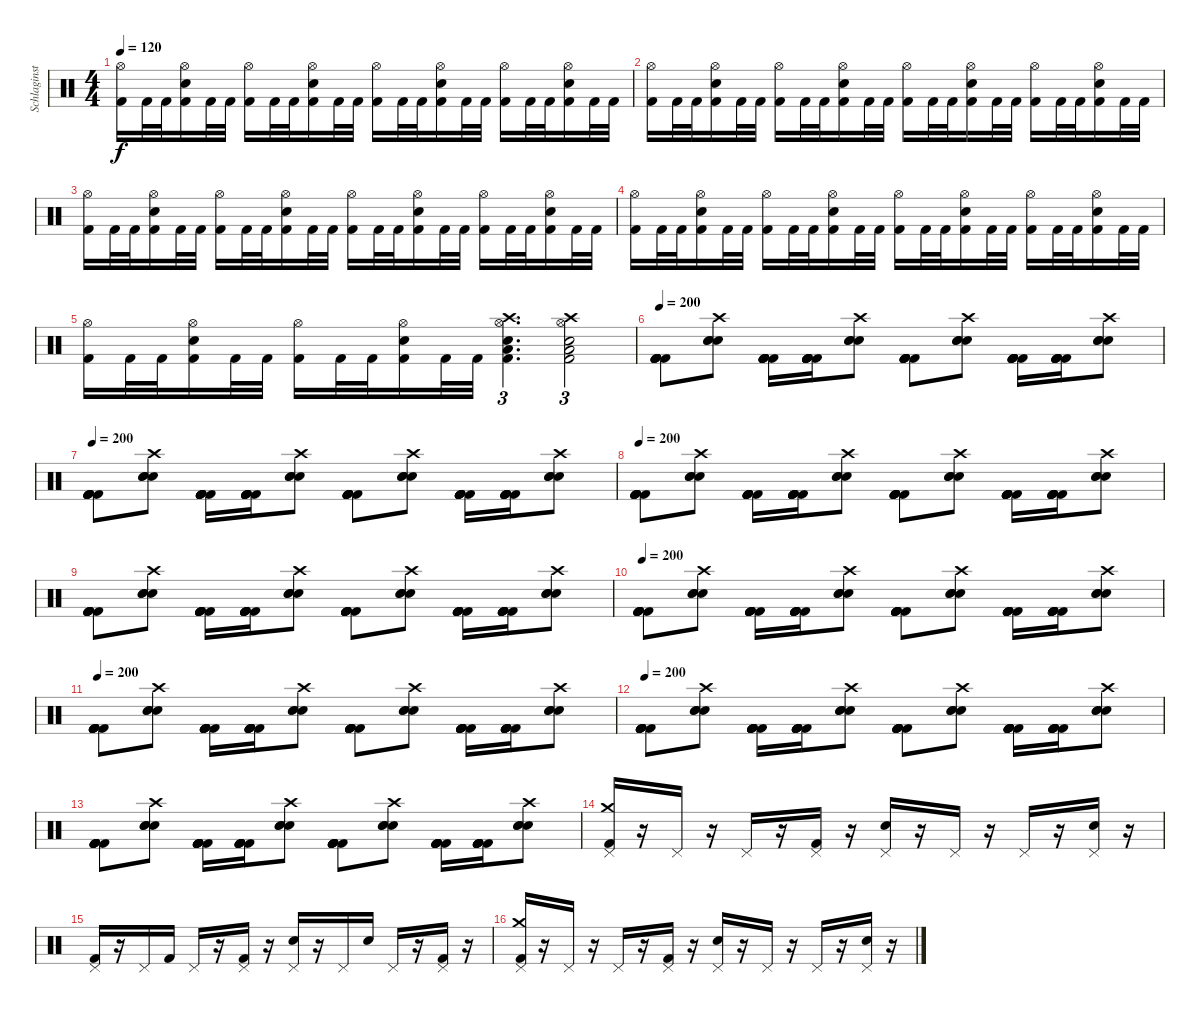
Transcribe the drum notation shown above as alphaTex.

\track ("Schlaginstrumente - Auswahl" "Schlaginst") {instrument percussion}
\staff {score}
\articulation defaults
\ts (4 4)
\tempo 120
\clef neutral
\ks c
("Hi-Hat (open)" "Kick (hit) 2").16{dy f} "Kick (hit) 2".32 "Kick (hit) 2".32 ("Hi-Hat (open)" "Electric Snare (hit)" "Kick (hit) 2").16 "Kick (hit) 2".32 "Kick (hit) 2".32 ("Hi-Hat (open)" "Kick (hit) 2").16 "Kick (hit) 2".32 "Kick (hit) 2".32 ("Hi-Hat (open)" "Electric Snare (hit)" "Kick (hit) 2").16 "Kick (hit) 2".32 "Kick (hit) 2".32 ("Hi-Hat (open)" "Kick (hit) 2").16 "Kick (hit) 2".32 "Kick (hit) 2".32 ("Hi-Hat (open)" "Electric Snare (hit)" "Kick (hit) 2").16 "Kick (hit) 2".32 "Kick (hit) 2".32 ("Hi-Hat (open)" "Kick (hit) 2").16 "Kick (hit) 2".32 "Kick (hit) 2".32 ("Hi-Hat (open)" "Electric Snare (hit)" "Kick (hit) 2").16 "Kick (hit) 2".32 "Kick (hit) 2".32 |
("Hi-Hat (open)" "Kick (hit) 2").16 "Kick (hit) 2".32 "Kick (hit) 2".32 ("Hi-Hat (open)" "Electric Snare (hit)" "Kick (hit) 2").16 "Kick (hit) 2".32 "Kick (hit) 2".32 ("Hi-Hat (open)" "Kick (hit) 2").16 "Kick (hit) 2".32 "Kick (hit) 2".32 ("Hi-Hat (open)" "Electric Snare (hit)" "Kick (hit) 2").16 "Kick (hit) 2".32 "Kick (hit) 2".32 ("Hi-Hat (open)" "Kick (hit) 2").16 "Kick (hit) 2".32 "Kick (hit) 2".32 ("Hi-Hat (open)" "Electric Snare (hit)" "Kick (hit) 2").16 "Kick (hit) 2".32 "Kick (hit) 2".32 ("Hi-Hat (open)" "Kick (hit) 2").16 "Kick (hit) 2".32 "Kick (hit) 2".32 ("Hi-Hat (open)" "Electric Snare (hit)" "Kick (hit) 2").16 "Kick (hit) 2".32 "Kick (hit) 2".32 |
("Hi-Hat (open)" "Kick (hit) 2").16 "Kick (hit) 2".32 "Kick (hit) 2".32 ("Hi-Hat (open)" "Electric Snare (hit)" "Kick (hit) 2").16 "Kick (hit) 2".32 "Kick (hit) 2".32 ("Hi-Hat (open)" "Kick (hit) 2").16 "Kick (hit) 2".32 "Kick (hit) 2".32 ("Hi-Hat (open)" "Electric Snare (hit)" "Kick (hit) 2").16 "Kick (hit) 2".32 "Kick (hit) 2".32 ("Hi-Hat (open)" "Kick (hit) 2").16 "Kick (hit) 2".32 "Kick (hit) 2".32 ("Hi-Hat (open)" "Electric Snare (hit)" "Kick (hit) 2").16 "Kick (hit) 2".32 "Kick (hit) 2".32 ("Hi-Hat (open)" "Kick (hit) 2").16 "Kick (hit) 2".32 "Kick (hit) 2".32 ("Hi-Hat (open)" "Electric Snare (hit)" "Kick (hit) 2").16 "Kick (hit) 2".32 "Kick (hit) 2".32 |
("Hi-Hat (open)" "Kick (hit) 2").16 "Kick (hit) 2".32 "Kick (hit) 2".32 ("Hi-Hat (open)" "Electric Snare (hit)" "Kick (hit) 2").16 "Kick (hit) 2".32 "Kick (hit) 2".32 ("Hi-Hat (open)" "Kick (hit) 2").16 "Kick (hit) 2".32 "Kick (hit) 2".32 ("Hi-Hat (open)" "Electric Snare (hit)" "Kick (hit) 2").16 "Kick (hit) 2".32 "Kick (hit) 2".32 ("Hi-Hat (open)" "Kick (hit) 2").16 "Kick (hit) 2".32 "Kick (hit) 2".32 ("Hi-Hat (open)" "Electric Snare (hit)" "Kick (hit) 2").16 "Kick (hit) 2".32 "Kick (hit) 2".32 ("Hi-Hat (open)" "Kick (hit) 2").16 "Kick (hit) 2".32 "Kick (hit) 2".32 ("Hi-Hat (open)" "Electric Snare (hit)" "Kick (hit) 2").16 "Kick (hit) 2".32 "Kick (hit) 2".32 |
("Hi-Hat (open)" "Kick (hit) 2").16 "Kick (hit) 2".32 "Kick (hit) 2".32 ("Hi-Hat (open)" "Electric Snare (hit)" "Kick (hit) 2").16 "Kick (hit) 2".32 "Kick (hit) 2".32 ("Hi-Hat (open)" "Kick (hit) 2").16 "Kick (hit) 2".32 "Kick (hit) 2".32 ("Hi-Hat (open)" "Electric Snare (hit)" "Kick (hit) 2").16 "Kick (hit) 2".32 "Kick (hit) 2".32 ("Low Floor Tom (hit)" "Kick (hit) 2" "Snare (hit)" "Crash high (hit)" "Hi-Hat (open)").4{d tu (3 2)} ("Low Floor Tom (hit)" "Kick (hit) 2" "Snare (hit)" "Crash high (hit)" "Hi-Hat (open)").2{tu (3 2)} |
\tempo 200
("Kick (hit) 2" "Kick (hit) 2" "Kick (hit) 2" "Kick (hit) 2" "Kick (hit) 2" "Kick (hit) 2").8 ("Electric Snare (hit)" "Electric Snare (hit)" "Electric Snare (hit)" "Crash high (hit)").8 ("Kick (hit) 2" "Kick (hit) 2" "Kick (hit) 2" "Kick (hit) 2" "Kick (hit) 2" "Kick (hit) 2").16 ("Kick (hit) 2" "Kick (hit) 2" "Kick (hit) 2" "Kick (hit) 2" "Kick (hit) 2" "Kick (hit) 2").16 ("Electric Snare (hit)" "Electric Snare (hit)" "Electric Snare (hit)" "Crash high (hit)").8 ("Kick (hit) 2" "Kick (hit) 2" "Kick (hit) 2" "Kick (hit) 2" "Kick (hit) 2" "Kick (hit) 2").8 ("Electric Snare (hit)" "Electric Snare (hit)" "Electric Snare (hit)" "Crash high (hit)").8 ("Kick (hit) 2" "Kick (hit) 2" "Kick (hit) 2" "Kick (hit) 2" "Kick (hit) 2" "Kick (hit) 2").16 ("Kick (hit) 2" "Kick (hit) 2" "Kick (hit) 2" "Kick (hit) 2" "Kick (hit) 2" "Kick (hit) 2").16 ("Electric Snare (hit)" "Electric Snare (hit)" "Electric Snare (hit)" "Crash high (hit)").8 |
\tempo 200
("Kick (hit) 2" "Kick (hit) 2" "Kick (hit) 2" "Kick (hit) 2" "Kick (hit) 2" "Kick (hit) 2").8 ("Electric Snare (hit)" "Electric Snare (hit)" "Electric Snare (hit)" "Crash high (hit)").8 ("Kick (hit) 2" "Kick (hit) 2" "Kick (hit) 2" "Kick (hit) 2" "Kick (hit) 2" "Kick (hit) 2").16 ("Kick (hit) 2" "Kick (hit) 2" "Kick (hit) 2" "Kick (hit) 2" "Kick (hit) 2" "Kick (hit) 2").16 ("Electric Snare (hit)" "Electric Snare (hit)" "Electric Snare (hit)" "Crash high (hit)").8 ("Kick (hit) 2" "Kick (hit) 2" "Kick (hit) 2" "Kick (hit) 2" "Kick (hit) 2" "Kick (hit) 2").8 ("Electric Snare (hit)" "Electric Snare (hit)" "Electric Snare (hit)" "Crash high (hit)").8 ("Kick (hit) 2" "Kick (hit) 2" "Kick (hit) 2" "Kick (hit) 2" "Kick (hit) 2" "Kick (hit) 2").16 ("Kick (hit) 2" "Kick (hit) 2" "Kick (hit) 2" "Kick (hit) 2" "Kick (hit) 2" "Kick (hit) 2").16 ("Electric Snare (hit)" "Electric Snare (hit)" "Electric Snare (hit)" "Crash high (hit)").8 |
\tempo 200
("Kick (hit) 2" "Kick (hit) 2" "Kick (hit) 2" "Kick (hit) 2" "Kick (hit) 2" "Kick (hit) 2").8 ("Electric Snare (hit)" "Electric Snare (hit)" "Electric Snare (hit)" "Crash high (hit)").8 ("Kick (hit) 2" "Kick (hit) 2" "Kick (hit) 2" "Kick (hit) 2" "Kick (hit) 2" "Kick (hit) 2").16 ("Kick (hit) 2" "Kick (hit) 2" "Kick (hit) 2" "Kick (hit) 2" "Kick (hit) 2" "Kick (hit) 2").16 ("Electric Snare (hit)" "Electric Snare (hit)" "Electric Snare (hit)" "Crash high (hit)").8 ("Kick (hit) 2" "Kick (hit) 2" "Kick (hit) 2" "Kick (hit) 2" "Kick (hit) 2" "Kick (hit) 2").8 ("Electric Snare (hit)" "Electric Snare (hit)" "Electric Snare (hit)" "Crash high (hit)").8 ("Kick (hit) 2" "Kick (hit) 2" "Kick (hit) 2" "Kick (hit) 2" "Kick (hit) 2" "Kick (hit) 2").16 ("Kick (hit) 2" "Kick (hit) 2" "Kick (hit) 2" "Kick (hit) 2" "Kick (hit) 2" "Kick (hit) 2").16 ("Electric Snare (hit)" "Electric Snare (hit)" "Electric Snare (hit)" "Crash high (hit)").8 |
("Kick (hit) 2" "Kick (hit) 2" "Kick (hit) 2" "Kick (hit) 2" "Kick (hit) 2" "Kick (hit) 2").8 ("Electric Snare (hit)" "Electric Snare (hit)" "Electric Snare (hit)" "Crash high (hit)").8 ("Kick (hit) 2" "Kick (hit) 2" "Kick (hit) 2" "Kick (hit) 2" "Kick (hit) 2" "Kick (hit) 2").16 ("Kick (hit) 2" "Kick (hit) 2" "Kick (hit) 2" "Kick (hit) 2" "Kick (hit) 2" "Kick (hit) 2").16 ("Electric Snare (hit)" "Electric Snare (hit)" "Electric Snare (hit)" "Crash high (hit)").8 ("Kick (hit) 2" "Kick (hit) 2" "Kick (hit) 2" "Kick (hit) 2" "Kick (hit) 2" "Kick (hit) 2").8 ("Electric Snare (hit)" "Electric Snare (hit)" "Electric Snare (hit)" "Crash high (hit)").8 ("Kick (hit) 2" "Kick (hit) 2" "Kick (hit) 2" "Kick (hit) 2" "Kick (hit) 2" "Kick (hit) 2").16 ("Kick (hit) 2" "Kick (hit) 2" "Kick (hit) 2" "Kick (hit) 2" "Kick (hit) 2" "Kick (hit) 2").16 ("Electric Snare (hit)" "Electric Snare (hit)" "Electric Snare (hit)" "Crash high (hit)").8 |
\tempo 200
("Kick (hit) 2" "Kick (hit) 2" "Kick (hit) 2" "Kick (hit) 2" "Kick (hit) 2" "Kick (hit) 2").8 ("Electric Snare (hit)" "Electric Snare (hit)" "Electric Snare (hit)" "Crash high (hit)").8 ("Kick (hit) 2" "Kick (hit) 2" "Kick (hit) 2" "Kick (hit) 2" "Kick (hit) 2" "Kick (hit) 2").16 ("Kick (hit) 2" "Kick (hit) 2" "Kick (hit) 2" "Kick (hit) 2" "Kick (hit) 2" "Kick (hit) 2").16 ("Electric Snare (hit)" "Electric Snare (hit)" "Electric Snare (hit)" "Crash high (hit)").8 ("Kick (hit) 2" "Kick (hit) 2" "Kick (hit) 2" "Kick (hit) 2" "Kick (hit) 2" "Kick (hit) 2").8 ("Electric Snare (hit)" "Electric Snare (hit)" "Electric Snare (hit)" "Crash high (hit)").8 ("Kick (hit) 2" "Kick (hit) 2" "Kick (hit) 2" "Kick (hit) 2" "Kick (hit) 2" "Kick (hit) 2").16 ("Kick (hit) 2" "Kick (hit) 2" "Kick (hit) 2" "Kick (hit) 2" "Kick (hit) 2" "Kick (hit) 2").16 ("Electric Snare (hit)" "Electric Snare (hit)" "Electric Snare (hit)" "Crash high (hit)").8 |
\tempo 200
("Kick (hit) 2" "Kick (hit) 2" "Kick (hit) 2" "Kick (hit) 2" "Kick (hit) 2" "Kick (hit) 2").8 ("Electric Snare (hit)" "Electric Snare (hit)" "Electric Snare (hit)" "Crash high (hit)").8 ("Kick (hit) 2" "Kick (hit) 2" "Kick (hit) 2" "Kick (hit) 2" "Kick (hit) 2" "Kick (hit) 2").16 ("Kick (hit) 2" "Kick (hit) 2" "Kick (hit) 2" "Kick (hit) 2" "Kick (hit) 2" "Kick (hit) 2").16 ("Electric Snare (hit)" "Electric Snare (hit)" "Electric Snare (hit)" "Crash high (hit)").8 ("Kick (hit) 2" "Kick (hit) 2" "Kick (hit) 2" "Kick (hit) 2" "Kick (hit) 2" "Kick (hit) 2").8 ("Electric Snare (hit)" "Electric Snare (hit)" "Electric Snare (hit)" "Crash high (hit)").8 ("Kick (hit) 2" "Kick (hit) 2" "Kick (hit) 2" "Kick (hit) 2" "Kick (hit) 2" "Kick (hit) 2").16 ("Kick (hit) 2" "Kick (hit) 2" "Kick (hit) 2" "Kick (hit) 2" "Kick (hit) 2" "Kick (hit) 2").16 ("Electric Snare (hit)" "Electric Snare (hit)" "Electric Snare (hit)" "Crash high (hit)").8 |
\tempo 200
("Kick (hit) 2" "Kick (hit) 2" "Kick (hit) 2" "Kick (hit) 2" "Kick (hit) 2" "Kick (hit) 2").8 ("Electric Snare (hit)" "Electric Snare (hit)" "Electric Snare (hit)" "Crash high (hit)").8 ("Kick (hit) 2" "Kick (hit) 2" "Kick (hit) 2" "Kick (hit) 2" "Kick (hit) 2" "Kick (hit) 2").16 ("Kick (hit) 2" "Kick (hit) 2" "Kick (hit) 2" "Kick (hit) 2" "Kick (hit) 2" "Kick (hit) 2").16 ("Electric Snare (hit)" "Electric Snare (hit)" "Electric Snare (hit)" "Crash high (hit)").8 ("Kick (hit) 2" "Kick (hit) 2" "Kick (hit) 2" "Kick (hit) 2" "Kick (hit) 2" "Kick (hit) 2").8 ("Electric Snare (hit)" "Electric Snare (hit)" "Electric Snare (hit)" "Crash high (hit)").8 ("Kick (hit) 2" "Kick (hit) 2" "Kick (hit) 2" "Kick (hit) 2" "Kick (hit) 2" "Kick (hit) 2").16 ("Kick (hit) 2" "Kick (hit) 2" "Kick (hit) 2" "Kick (hit) 2" "Kick (hit) 2" "Kick (hit) 2").16 ("Electric Snare (hit)" "Electric Snare (hit)" "Electric Snare (hit)" "Crash high (hit)").8 |
("Kick (hit) 2" "Kick (hit) 2" "Kick (hit) 2" "Kick (hit) 2" "Kick (hit) 2" "Kick (hit) 2").8 ("Electric Snare (hit)" "Electric Snare (hit)" "Electric Snare (hit)" "Crash high (hit)").8 ("Kick (hit) 2" "Kick (hit) 2" "Kick (hit) 2" "Kick (hit) 2" "Kick (hit) 2" "Kick (hit) 2").16 ("Kick (hit) 2" "Kick (hit) 2" "Kick (hit) 2" "Kick (hit) 2" "Kick (hit) 2" "Kick (hit) 2").16 ("Electric Snare (hit)" "Electric Snare (hit)" "Electric Snare (hit)" "Crash high (hit)").8 ("Kick (hit) 2" "Kick (hit) 2" "Kick (hit) 2" "Kick (hit) 2" "Kick (hit) 2" "Kick (hit) 2").8 ("Electric Snare (hit)" "Electric Snare (hit)" "Electric Snare (hit)" "Crash high (hit)").8 ("Kick (hit) 2" "Kick (hit) 2" "Kick (hit) 2" "Kick (hit) 2" "Kick (hit) 2" "Kick (hit) 2").16 ("Kick (hit) 2" "Kick (hit) 2" "Kick (hit) 2" "Kick (hit) 2" "Kick (hit) 2" "Kick (hit) 2").16 ("Electric Snare (hit)" "Electric Snare (hit)" "Electric Snare (hit)" "Crash high (hit)").8 |
("Crash medium (hit)" "Pedal Hi-Hat (hit)" "Kick (hit) 2").16 r.16 "Pedal Hi-Hat (hit)".16 r.16 "Pedal Hi-Hat (hit)".16 r.16 ("Pedal Hi-Hat (hit)" "Kick (hit) 2").16 r.16 ("Pedal Hi-Hat (hit)" "Electric Snare (hit)").16 r.16 "Pedal Hi-Hat (hit)".16 r.16 "Pedal Hi-Hat (hit)".16 r.16 ("Pedal Hi-Hat (hit)" "Electric Snare (hit)").16 r.16 |
("Pedal Hi-Hat (hit)" "Kick (hit) 2").16 r.16 "Pedal Hi-Hat (hit)".16 "Kick (hit) 2".16 "Pedal Hi-Hat (hit)".16 r.16 ("Pedal Hi-Hat (hit)" "Kick (hit) 2").16 r.16 ("Pedal Hi-Hat (hit)" "Electric Snare (hit)").16 r.16 "Pedal Hi-Hat (hit)".16 "Electric Snare (hit)".16 "Pedal Hi-Hat (hit)".16 r.16 ("Pedal Hi-Hat (hit)" "Kick (hit) 2").16 r.16 |
("Crash medium (hit)" "Pedal Hi-Hat (hit)" "Kick (hit) 2").16 r.16 "Pedal Hi-Hat (hit)".16 r.16 "Pedal Hi-Hat (hit)".16 r.16 ("Pedal Hi-Hat (hit)" "Kick (hit) 2").16 r.16 ("Pedal Hi-Hat (hit)" "Electric Snare (hit)").16 r.16 "Pedal Hi-Hat (hit)".16 r.16 "Pedal Hi-Hat (hit)".16 r.16 ("Pedal Hi-Hat (hit)" "Electric Snare (hit)").16 r.16
